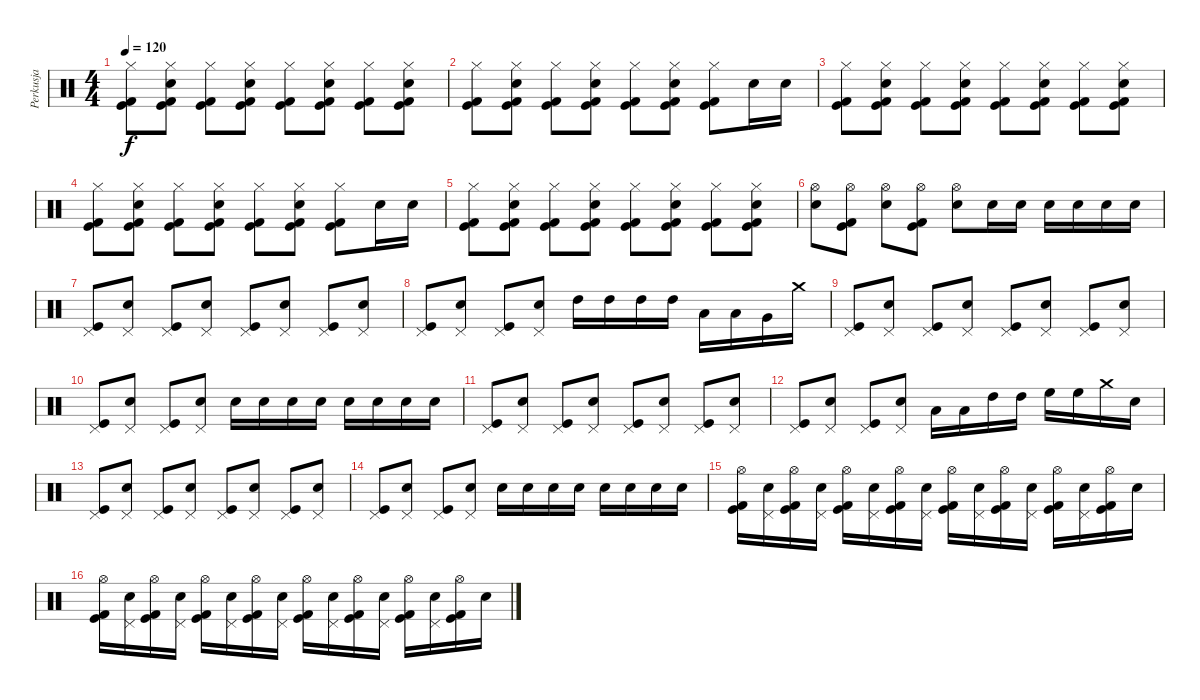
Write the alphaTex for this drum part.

\track ("Perkusja" "Perkusja") {instrument percussion}
\staff {score}
\articulation defaults
\ts (4 4)
\tempo 120
\clef neutral
\ks c
("Hi-Hat (closed)" "Kick (hit)" "Kick (hit) 2").8{dy f} ("Hi-Hat (closed)" "Snare (hit) 2" "Kick (hit)" "Kick (hit) 2").8 ("Hi-Hat (closed)" "Kick (hit)" "Kick (hit) 2").8 ("Hi-Hat (closed)" "Snare (hit) 2" "Kick (hit)" "Kick (hit) 2").8 ("Hi-Hat (closed)" "Kick (hit)" "Kick (hit) 2").8 ("Hi-Hat (closed)" "Snare (hit) 2" "Kick (hit)" "Kick (hit) 2").8 ("Hi-Hat (closed)" "Kick (hit)" "Kick (hit) 2").8 ("Hi-Hat (closed)" "Snare (hit) 2" "Kick (hit)" "Kick (hit) 2").8 |
("Hi-Hat (closed)" "Kick (hit)" "Kick (hit) 2").8 ("Hi-Hat (closed)" "Snare (hit) 2" "Kick (hit)" "Kick (hit) 2").8 ("Hi-Hat (closed)" "Kick (hit)" "Kick (hit) 2").8 ("Hi-Hat (closed)" "Snare (hit) 2" "Kick (hit)" "Kick (hit) 2").8 ("Hi-Hat (closed)" "Kick (hit)" "Kick (hit) 2").8 ("Hi-Hat (closed)" "Snare (hit) 2" "Kick (hit)" "Kick (hit) 2").8 ("Hi-Hat (closed)" "Kick (hit)" "Kick (hit) 2").8 "Snare (hit) 2".16 "Snare (hit) 2".16 |
("Hi-Hat (closed)" "Kick (hit)" "Kick (hit) 2").8 ("Hi-Hat (closed)" "Snare (hit) 2" "Kick (hit)" "Kick (hit) 2").8 ("Hi-Hat (closed)" "Kick (hit)" "Kick (hit) 2").8 ("Hi-Hat (closed)" "Snare (hit) 2" "Kick (hit)" "Kick (hit) 2").8 ("Hi-Hat (closed)" "Kick (hit)" "Kick (hit) 2").8 ("Hi-Hat (closed)" "Snare (hit) 2" "Kick (hit)" "Kick (hit) 2").8 ("Hi-Hat (closed)" "Kick (hit)" "Kick (hit) 2").8 ("Hi-Hat (closed)" "Snare (hit) 2" "Kick (hit)" "Kick (hit) 2").8 |
("Hi-Hat (closed)" "Kick (hit)" "Kick (hit) 2").8 ("Hi-Hat (closed)" "Snare (hit) 2" "Kick (hit)" "Kick (hit) 2").8 ("Hi-Hat (closed)" "Kick (hit)" "Kick (hit) 2").8 ("Hi-Hat (closed)" "Snare (hit) 2" "Kick (hit)" "Kick (hit) 2").8 ("Hi-Hat (closed)" "Kick (hit)" "Kick (hit) 2").8 ("Hi-Hat (closed)" "Snare (hit) 2" "Kick (hit)" "Kick (hit) 2").8 ("Hi-Hat (closed)" "Kick (hit)" "Kick (hit) 2").8 "Snare (hit) 2".16 "Snare (hit) 2".16 |
("Hi-Hat (closed)" "Kick (hit)" "Kick (hit) 2").8 ("Hi-Hat (closed)" "Snare (hit) 2" "Kick (hit)" "Kick (hit) 2").8 ("Hi-Hat (closed)" "Kick (hit)" "Kick (hit) 2").8 ("Hi-Hat (closed)" "Snare (hit) 2" "Kick (hit)" "Kick (hit) 2").8 ("Hi-Hat (closed)" "Kick (hit)" "Kick (hit) 2").8 ("Hi-Hat (closed)" "Snare (hit) 2" "Kick (hit)" "Kick (hit) 2").8 ("Hi-Hat (closed)" "Kick (hit)" "Kick (hit) 2").8 ("Hi-Hat (closed)" "Snare (hit) 2" "Kick (hit)" "Kick (hit) 2").8 |
("Hi-Hat (open)" "Electric Snare (hit)").8 ("Hi-Hat (open)" "Kick (hit)" "Kick (hit) 2").8 ("Hi-Hat (open)" "Electric Snare (hit)").8 ("Hi-Hat (open)" "Kick (hit)" "Kick (hit) 2").8 ("Hi-Hat (open)" "Electric Snare (hit)").8 "Snare (hit) 2".16 "Snare (hit) 2".16 "Snare (hit) 2".16 "Snare (hit) 2".16 "Snare (hit) 2".16 "Snare (hit) 2".16 |
("Pedal Hi-Hat (hit)" "Kick (hit)").8 ("Pedal Hi-Hat (hit)" "Snare (hit) 2").8 ("Pedal Hi-Hat (hit)" "Kick (hit)").8 ("Pedal Hi-Hat (hit)" "Snare (hit) 2").8 ("Pedal Hi-Hat (hit)" "Kick (hit)").8 ("Pedal Hi-Hat (hit)" "Snare (hit) 2").8 ("Pedal Hi-Hat (hit)" "Kick (hit)").8 ("Pedal Hi-Hat (hit)" "Snare (hit) 2").8 |
("Pedal Hi-Hat (hit)" "Kick (hit)").8 ("Pedal Hi-Hat (hit)" "Snare (hit) 2").8 ("Pedal Hi-Hat (hit)" "Kick (hit)").8 ("Pedal Hi-Hat (hit)" "Snare (hit) 2").8 "High Tom (hit)".16 "High Tom (hit)".16 "High Tom (hit)".16 "High Tom (hit)".16 "Low Tom (hit)".16 "Low Tom (hit)".16 "Very Low Tom (hit)".16 "Crash medium (hit)".16 |
("Pedal Hi-Hat (hit)" "Kick (hit)").8 ("Pedal Hi-Hat (hit)" "Snare (hit) 2").8 ("Pedal Hi-Hat (hit)" "Kick (hit)").8 ("Pedal Hi-Hat (hit)" "Snare (hit) 2").8 ("Pedal Hi-Hat (hit)" "Kick (hit)").8 ("Pedal Hi-Hat (hit)" "Snare (hit) 2").8 ("Pedal Hi-Hat (hit)" "Kick (hit)").8 ("Pedal Hi-Hat (hit)" "Snare (hit) 2").8 |
("Pedal Hi-Hat (hit)" "Kick (hit)").8 ("Pedal Hi-Hat (hit)" "Snare (hit) 2").8 ("Pedal Hi-Hat (hit)" "Kick (hit)").8 ("Pedal Hi-Hat (hit)" "Snare (hit) 2").8 "Snare (hit) 2".16 "Snare (hit) 2".16 "Snare (hit) 2".16 "Snare (hit) 2".16 "Snare (hit) 2".16 "Snare (hit) 2".16 "Snare (hit) 2".16 "Snare (hit) 2".16 |
("Pedal Hi-Hat (hit)" "Kick (hit)").8 ("Pedal Hi-Hat (hit)" "Snare (hit) 2").8 ("Pedal Hi-Hat (hit)" "Kick (hit)").8 ("Pedal Hi-Hat (hit)" "Snare (hit) 2").8 ("Pedal Hi-Hat (hit)" "Kick (hit)").8 ("Pedal Hi-Hat (hit)" "Snare (hit) 2").8 ("Pedal Hi-Hat (hit)" "Kick (hit)").8 ("Pedal Hi-Hat (hit)" "Snare (hit) 2").8 |
("Pedal Hi-Hat (hit)" "Kick (hit)").8 ("Pedal Hi-Hat (hit)" "Snare (hit) 2").8 ("Pedal Hi-Hat (hit)" "Kick (hit)").8 ("Pedal Hi-Hat (hit)" "Snare (hit) 2").8 "Low Tom (hit)".16 "Low Tom (hit)".16 "High Tom (hit)".16 "High Tom (hit)".16 "High Floor Tom (hit)".16 "High Floor Tom (hit)".16 "Crash medium (hit)".16 "Snare (hit)"{x}.16 |
("Pedal Hi-Hat (hit)" "Kick (hit)").8 ("Pedal Hi-Hat (hit)" "Snare (hit) 2").8 ("Pedal Hi-Hat (hit)" "Kick (hit)").8 ("Pedal Hi-Hat (hit)" "Snare (hit) 2").8 ("Pedal Hi-Hat (hit)" "Kick (hit)").8 ("Pedal Hi-Hat (hit)" "Snare (hit) 2").8 ("Pedal Hi-Hat (hit)" "Kick (hit)").8 ("Pedal Hi-Hat (hit)" "Snare (hit) 2").8 |
("Pedal Hi-Hat (hit)" "Kick (hit)").8 ("Pedal Hi-Hat (hit)" "Snare (hit) 2").8 ("Pedal Hi-Hat (hit)" "Kick (hit)").8 ("Pedal Hi-Hat (hit)" "Snare (hit) 2").8 "Snare (hit) 2".16 "Snare (hit) 2".16 "Snare (hit) 2".16 "Snare (hit) 2".16 "Snare (hit) 2".16 "Snare (hit) 2".16 "Snare (hit) 2".16 "Snare (hit) 2".16 |
("Hi-Hat (open)" "Kick (hit)" "Kick (hit) 2").16 ("Pedal Hi-Hat (hit)" "Snare (hit) 2").16 ("Hi-Hat (open)" "Kick (hit)" "Kick (hit) 2").16 ("Pedal Hi-Hat (hit)" "Snare (hit) 2").16 ("Hi-Hat (open)" "Kick (hit)" "Kick (hit) 2").16 ("Pedal Hi-Hat (hit)" "Snare (hit) 2").16 ("Hi-Hat (open)" "Kick (hit)" "Kick (hit) 2").16 ("Pedal Hi-Hat (hit)" "Snare (hit) 2").16 ("Hi-Hat (open)" "Kick (hit)" "Kick (hit) 2").16 ("Pedal Hi-Hat (hit)" "Snare (hit) 2").16 ("Hi-Hat (open)" "Kick (hit)" "Kick (hit) 2").16 ("Pedal Hi-Hat (hit)" "Snare (hit) 2").16 ("Hi-Hat (open)" "Kick (hit)" "Kick (hit) 2").16 ("Pedal Hi-Hat (hit)" "Snare (hit) 2").16 ("Hi-Hat (open)" "Kick (hit)" "Kick (hit) 2").16 "Snare (hit) 2".16 |
("Hi-Hat (open)" "Kick (hit)" "Kick (hit) 2").16 ("Pedal Hi-Hat (hit)" "Snare (hit) 2").16 ("Hi-Hat (open)" "Kick (hit)" "Kick (hit) 2").16 ("Pedal Hi-Hat (hit)" "Snare (hit) 2").16 ("Hi-Hat (open)" "Kick (hit)" "Kick (hit) 2").16 ("Pedal Hi-Hat (hit)" "Snare (hit) 2").16 ("Hi-Hat (open)" "Kick (hit)" "Kick (hit) 2").16 ("Pedal Hi-Hat (hit)" "Snare (hit) 2").16 ("Hi-Hat (open)" "Kick (hit)" "Kick (hit) 2").16 ("Pedal Hi-Hat (hit)" "Snare (hit) 2").16 ("Hi-Hat (open)" "Kick (hit)" "Kick (hit) 2").16 ("Pedal Hi-Hat (hit)" "Snare (hit) 2").16 ("Hi-Hat (open)" "Kick (hit)" "Kick (hit) 2").16 ("Pedal Hi-Hat (hit)" "Snare (hit) 2").16 ("Hi-Hat (open)" "Kick (hit)" "Kick (hit) 2").16 "Snare (hit) 2".16
